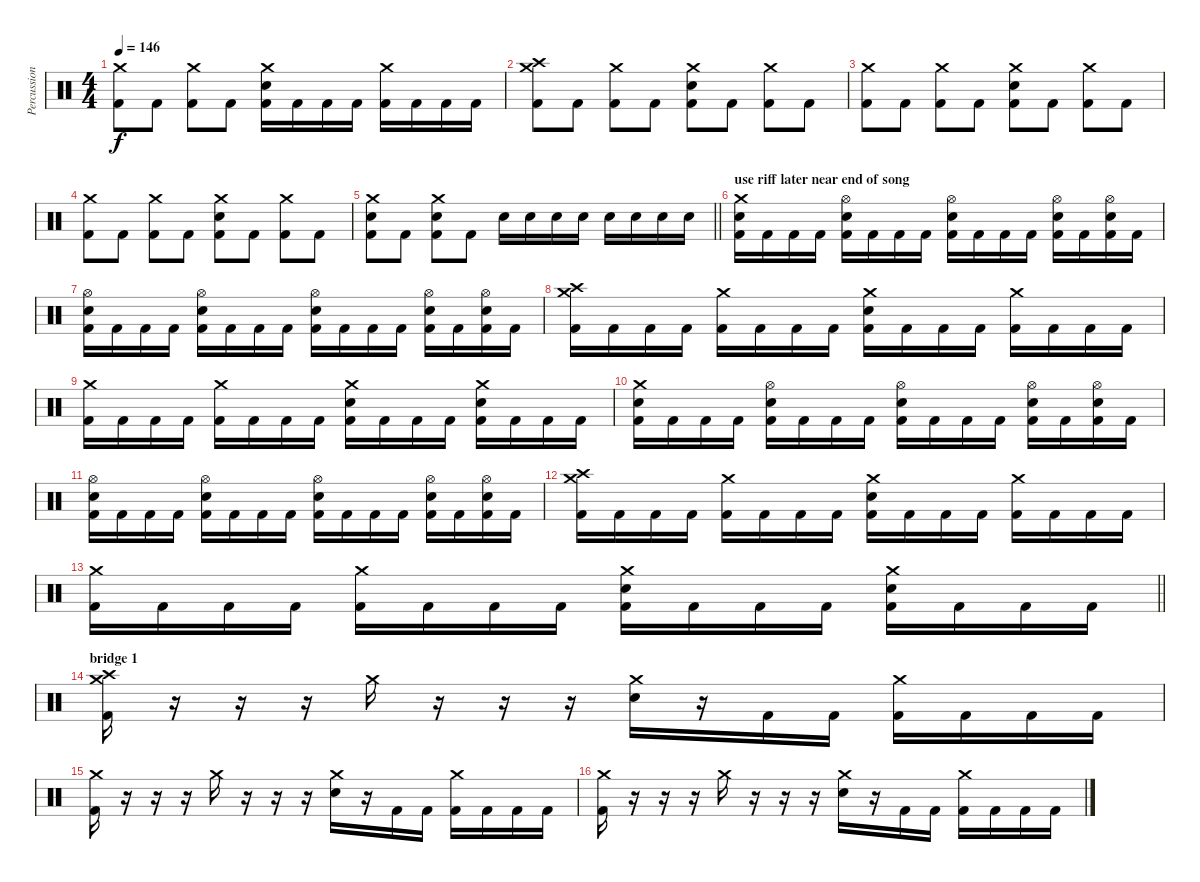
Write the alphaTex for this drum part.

\track ("Percussion" "Percussion") {instrument percussion}
\staff {score}
\articulation defaults
\ts (4 4)
\tempo 146
\clef neutral
\ks c
("Crash medium (hit)" "Kick (hit) 2").8{dy f} "Kick (hit) 2".8 ("Crash medium (hit)" "Kick (hit) 2").8 "Kick (hit) 2".8 ("Crash medium (hit)" "Snare (hit) 2" "Kick (hit) 2").16 "Kick (hit) 2".16 "Kick (hit) 2".16 "Kick (hit) 2".16 ("Crash medium (hit)" "Kick (hit) 2").16 "Kick (hit) 2".16 "Kick (hit) 2".16 "Kick (hit) 2".16 |
("Crash high (hit)" "Crash medium (hit)" "Kick (hit) 2").8 "Kick (hit) 2".8 ("Crash medium (hit)" "Kick (hit) 2").8 "Kick (hit) 2".8 ("Crash medium (hit)" "Snare (hit) 2" "Kick (hit) 2").8 "Kick (hit) 2".8 ("Crash medium (hit)" "Kick (hit) 2").8 "Kick (hit) 2".8 |
("Crash medium (hit)" "Kick (hit) 2").8 "Kick (hit) 2".8 ("Crash medium (hit)" "Kick (hit) 2").8 "Kick (hit) 2".8 ("Crash medium (hit)" "Snare (hit) 2" "Kick (hit) 2").8 "Kick (hit) 2".8 ("Crash medium (hit)" "Kick (hit) 2").8 "Kick (hit) 2".8 |
("Crash medium (hit)" "Kick (hit) 2").8 "Kick (hit) 2".8 ("Crash medium (hit)" "Kick (hit) 2").8 "Kick (hit) 2".8 ("Crash medium (hit)" "Snare (hit) 2" "Kick (hit) 2").8 "Kick (hit) 2".8 ("Crash medium (hit)" "Kick (hit) 2").8 "Kick (hit) 2".8 |
\barLineRight lightlight
("Crash medium (hit)" "Snare (hit) 2" "Kick (hit) 2").8 "Kick (hit) 2".8 ("Crash medium (hit)" "Snare (hit) 2" "Kick (hit) 2").8 "Kick (hit) 2".8 "Snare (hit) 2".16 "Snare (hit) 2".16 "Snare (hit) 2".16 "Snare (hit) 2".16 "Snare (hit) 2".16 "Snare (hit) 2".16 "Snare (hit) 2".16 "Snare (hit) 2".16 |
\section ("" "use riff later near end of song")
("Crash medium (hit)" "Snare (hit) 2" "Kick (hit) 2").16 "Kick (hit) 2".16 "Kick (hit) 2".16 "Kick (hit) 2".16 ("Hi-Hat (open)" "Snare (hit) 2" "Kick (hit) 2").16 "Kick (hit) 2".16 "Kick (hit) 2".16 "Kick (hit) 2".16 ("Hi-Hat (open)" "Snare (hit) 2" "Kick (hit) 2").16 "Kick (hit) 2".16 "Kick (hit) 2".16 "Kick (hit) 2".16 ("Hi-Hat (open)" "Snare (hit) 2" "Kick (hit) 2").16 "Kick (hit) 2".16 ("Hi-Hat (open)" "Snare (hit) 2" "Kick (hit) 2").16 "Kick (hit) 2".16 |
("Hi-Hat (open)" "Snare (hit) 2" "Kick (hit) 2").16 "Kick (hit) 2".16 "Kick (hit) 2".16 "Kick (hit) 2".16 ("Hi-Hat (open)" "Snare (hit) 2" "Kick (hit) 2").16 "Kick (hit) 2".16 "Kick (hit) 2".16 "Kick (hit) 2".16 ("Hi-Hat (open)" "Snare (hit) 2" "Kick (hit) 2").16 "Kick (hit) 2".16 "Kick (hit) 2".16 "Kick (hit) 2".16 ("Hi-Hat (open)" "Snare (hit) 2" "Kick (hit) 2").16 "Kick (hit) 2".16 ("Hi-Hat (open)" "Snare (hit) 2" "Kick (hit) 2").16 "Kick (hit) 2".16 |
("Crash high (hit)" "Crash medium (hit)" "Kick (hit) 2").16 "Kick (hit) 2".16 "Kick (hit) 2".16 "Kick (hit) 2".16 ("Crash medium (hit)" "Kick (hit) 2").16 "Kick (hit) 2".16 "Kick (hit) 2".16 "Kick (hit) 2".16 ("Crash medium (hit)" "Snare (hit) 2" "Kick (hit) 2").16 "Kick (hit) 2".16 "Kick (hit) 2".16 "Kick (hit) 2".16 ("Crash medium (hit)" "Kick (hit) 2").16 "Kick (hit) 2".16 "Kick (hit) 2".16 "Kick (hit) 2".16 |
("Crash medium (hit)" "Kick (hit) 2").16 "Kick (hit) 2".16 "Kick (hit) 2".16 "Kick (hit) 2".16 ("Crash medium (hit)" "Kick (hit) 2").16 "Kick (hit) 2".16 "Kick (hit) 2".16 "Kick (hit) 2".16 ("Crash medium (hit)" "Snare (hit) 2" "Kick (hit) 2").16 "Kick (hit) 2".16 "Kick (hit) 2".16 "Kick (hit) 2".16 ("Crash medium (hit)" "Snare (hit) 2" "Kick (hit) 2").16 "Kick (hit) 2".16 "Kick (hit) 2".16 "Kick (hit) 2".16 |
("Crash medium (hit)" "Snare (hit) 2" "Kick (hit) 2").16 "Kick (hit) 2".16 "Kick (hit) 2".16 "Kick (hit) 2".16 ("Hi-Hat (open)" "Snare (hit) 2" "Kick (hit) 2").16 "Kick (hit) 2".16 "Kick (hit) 2".16 "Kick (hit) 2".16 ("Hi-Hat (open)" "Snare (hit) 2" "Kick (hit) 2").16 "Kick (hit) 2".16 "Kick (hit) 2".16 "Kick (hit) 2".16 ("Hi-Hat (open)" "Snare (hit) 2" "Kick (hit) 2").16 "Kick (hit) 2".16 ("Hi-Hat (open)" "Snare (hit) 2" "Kick (hit) 2").16 "Kick (hit) 2".16 |
("Hi-Hat (open)" "Snare (hit) 2" "Kick (hit) 2").16 "Kick (hit) 2".16 "Kick (hit) 2".16 "Kick (hit) 2".16 ("Hi-Hat (open)" "Snare (hit) 2" "Kick (hit) 2").16 "Kick (hit) 2".16 "Kick (hit) 2".16 "Kick (hit) 2".16 ("Hi-Hat (open)" "Snare (hit) 2" "Kick (hit) 2").16 "Kick (hit) 2".16 "Kick (hit) 2".16 "Kick (hit) 2".16 ("Hi-Hat (open)" "Snare (hit) 2" "Kick (hit) 2").16 "Kick (hit) 2".16 ("Hi-Hat (open)" "Snare (hit) 2" "Kick (hit) 2").16 "Kick (hit) 2".16 |
("Crash high (hit)" "Crash medium (hit)" "Kick (hit) 2").16 "Kick (hit) 2".16 "Kick (hit) 2".16 "Kick (hit) 2".16 ("Crash medium (hit)" "Kick (hit) 2").16 "Kick (hit) 2".16 "Kick (hit) 2".16 "Kick (hit) 2".16 ("Crash medium (hit)" "Snare (hit) 2" "Kick (hit) 2").16 "Kick (hit) 2".16 "Kick (hit) 2".16 "Kick (hit) 2".16 ("Crash medium (hit)" "Kick (hit) 2").16 "Kick (hit) 2".16 "Kick (hit) 2".16 "Kick (hit) 2".16 |
\barLineRight lightlight
("Crash medium (hit)" "Kick (hit) 2").16 "Kick (hit) 2".16 "Kick (hit) 2".16 "Kick (hit) 2".16 ("Crash medium (hit)" "Kick (hit) 2").16 "Kick (hit) 2".16 "Kick (hit) 2".16 "Kick (hit) 2".16 ("Crash medium (hit)" "Snare (hit) 2" "Kick (hit) 2").16 "Kick (hit) 2".16 "Kick (hit) 2".16 "Kick (hit) 2".16 ("Crash medium (hit)" "Snare (hit) 2" "Kick (hit) 2").16 "Kick (hit) 2".16 "Kick (hit) 2".16 "Kick (hit) 2".16 |
\section ("" "bridge 1")
("Crash high (hit)" "Crash medium (hit)" "Kick (hit) 2").16 r.16 r.16 r.16 "Crash medium (hit)".16 r.16 r.16 r.16 ("Crash medium (hit)" "Snare (hit) 2").16 r.16 "Kick (hit) 2".16 "Kick (hit) 2".16 ("Crash medium (hit)" "Kick (hit) 2").16 "Kick (hit) 2".16 "Kick (hit) 2".16 "Kick (hit) 2".16 |
("Crash medium (hit)" "Kick (hit) 2").16 r.16 r.16 r.16 "Crash medium (hit)".16 r.16 r.16 r.16 ("Crash medium (hit)" "Snare (hit) 2").16 r.16 "Kick (hit) 2".16 "Kick (hit) 2".16 ("Crash medium (hit)" "Kick (hit) 2").16 "Kick (hit) 2".16 "Kick (hit) 2".16 "Kick (hit) 2".16 |
("Crash medium (hit)" "Kick (hit) 2").16 r.16 r.16 r.16 "Crash medium (hit)".16 r.16 r.16 r.16 ("Crash medium (hit)" "Snare (hit) 2").16 r.16 "Kick (hit) 2".16 "Kick (hit) 2".16 ("Crash medium (hit)" "Kick (hit) 2").16 "Kick (hit) 2".16 "Kick (hit) 2".16 "Kick (hit) 2".16
